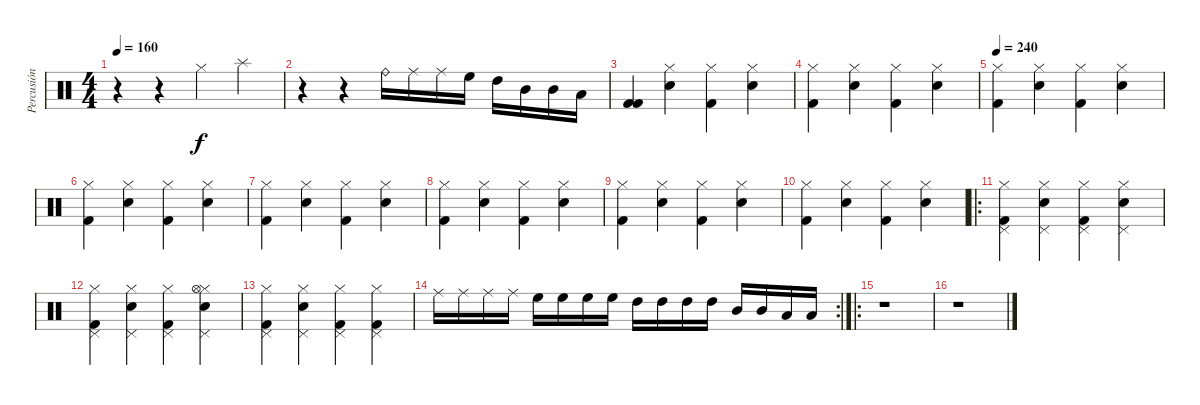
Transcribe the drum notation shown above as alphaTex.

\track ("Percusión" "Percusión") {instrument percussion}
\staff {score}
\articulation defaults
\ts (4 4)
\tempo 160
\clef neutral
\ks c
r.4{dy f} r.4 "Hi-Hat (closed)".4 "Splash (hit)".4 |
r.4 r.4 "Ride (bell)".16 "Ride (middle)".16 "Ride (middle)".16 "High Floor Tom (hit)".16 "High Tom (hit)".16 "Mid Tom (hit)".16 "Mid Tom (hit)".16 "Low Tom (hit)".16 |
("Kick (hit) 2" "Kick (hit) 2").4 ("Snare (hit) 2" "Hi-Hat (closed)").4 ("Hi-Hat (closed)" "Kick (hit) 2").4 ("Snare (hit) 2" "Hi-Hat (closed)").4 |
("Hi-Hat (closed)" "Kick (hit) 2").4 ("Snare (hit) 2" "Hi-Hat (closed)").4 ("Hi-Hat (closed)" "Kick (hit) 2").4 ("Snare (hit) 2" "Hi-Hat (closed)").4 |
\tempo 240
("Hi-Hat (closed)" "Kick (hit) 2").4 ("Snare (hit) 2" "Hi-Hat (closed)").4 ("Hi-Hat (closed)" "Kick (hit) 2").4 ("Snare (hit) 2" "Hi-Hat (closed)").4 |
("Hi-Hat (closed)" "Kick (hit) 2").4 ("Snare (hit) 2" "Hi-Hat (closed)").4 ("Hi-Hat (closed)" "Kick (hit) 2").4 ("Snare (hit) 2" "Hi-Hat (closed)").4 |
("Hi-Hat (closed)" "Kick (hit) 2").4 ("Snare (hit) 2" "Hi-Hat (closed)").4 ("Hi-Hat (closed)" "Kick (hit) 2").4 ("Snare (hit) 2" "Hi-Hat (closed)").4 |
("Hi-Hat (closed)" "Kick (hit) 2").4 ("Snare (hit) 2" "Hi-Hat (closed)").4 ("Hi-Hat (closed)" "Kick (hit) 2").4 ("Snare (hit) 2" "Hi-Hat (closed)").4 |
("Hi-Hat (closed)" "Kick (hit) 2").4 ("Snare (hit) 2" "Hi-Hat (closed)").4 ("Hi-Hat (closed)" "Kick (hit) 2").4 ("Snare (hit) 2" "Hi-Hat (closed)").4 |
("Hi-Hat (closed)" "Kick (hit) 2").4 ("Snare (hit) 2" "Hi-Hat (closed)").4 ("Hi-Hat (closed)" "Kick (hit) 2").4 ("Snare (hit) 2" "Hi-Hat (closed)").4 |
\ro
("Hi-Hat (closed)" "Kick (hit) 2" "Pedal Hi-Hat (hit)").4 ("Hi-Hat (closed)" "Snare (hit) 2" "Pedal Hi-Hat (hit)").4 ("Hi-Hat (closed)" "Kick (hit) 2" "Pedal Hi-Hat (hit)").4 ("Hi-Hat (closed)" "Snare (hit) 2" "Pedal Hi-Hat (hit)").4 |
("Hi-Hat (closed)" "Kick (hit) 2" "Pedal Hi-Hat (hit)").4 ("Hi-Hat (closed)" "Snare (hit) 2" "Pedal Hi-Hat (hit)").4 ("Hi-Hat (closed)" "Kick (hit) 2" "Pedal Hi-Hat (hit)").4 ("Hi-Hat (closed)" "Snare (hit) 2" "Pedal Hi-Hat (hit)" "Hi-Hat (open)").4 |
("Hi-Hat (closed)" "Kick (hit) 2" "Pedal Hi-Hat (hit)").4 ("Hi-Hat (closed)" "Snare (hit) 2" "Pedal Hi-Hat (hit)").4 ("Hi-Hat (closed)" "Kick (hit) 2" "Pedal Hi-Hat (hit)").4 ("Hi-Hat (closed)" "Kick (hit) 2" "Pedal Hi-Hat (hit)").4 |
\rc 2 "Ride (middle)".16 "Ride (middle)".16 "Ride (middle)".16 "Ride (middle)".16 "High Floor Tom (hit)".16 "High Floor Tom (hit)".16 "High Floor Tom (hit)".16 "High Floor Tom (hit)".16 "High Tom (hit)".16 "High Tom (hit)".16 "High Tom (hit)".16 "High Tom (hit)".16 "Mid Tom (hit)".16 "Mid Tom (hit)".16 "Low Tom (hit)".16 "Low Tom (hit)".16
|
\ro
r.1 |
r.1
